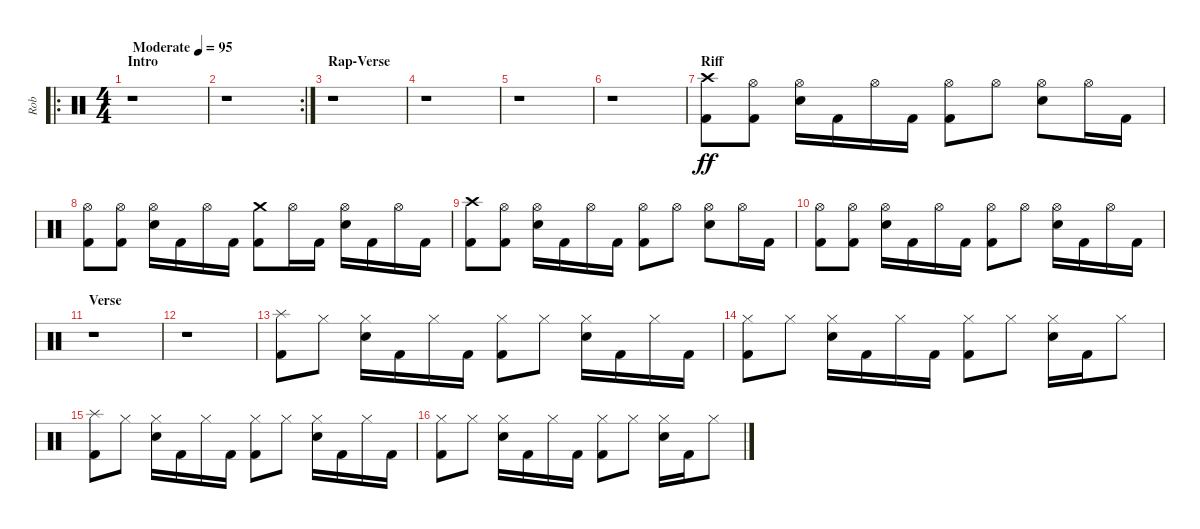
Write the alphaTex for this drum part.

\track ("Rob" "Rob") {instrument percussion}
\staff {score}
\articulation defaults
\ro
\ts (4 4)
\section ("" "Intro")
\tempo (95 "Moderate")
\clef neutral
\ks c
r.1{dy ff} |
\rc 2
r.1 |
\section ("" "Rap-Verse")
r.1 |
r.1 |
r.1 |
r.1 |
\section ("" "Riff")
("Crash high (hit)" "Kick (hit) 2").8 ("Hi-Hat (open)" "Kick (hit) 2").8 ("Hi-Hat (open)" "Snare (hit) 2").16 "Kick (hit) 2".16 "Hi-Hat (open)".16 "Kick (hit) 2".16 ("Hi-Hat (open)" "Kick (hit) 2").8 "Hi-Hat (open)".8 ("Hi-Hat (open)" "Snare (hit) 2").8 "Hi-Hat (open)".16 "Kick (hit) 2".16 |
("Hi-Hat (open)" "Kick (hit) 2").8 ("Hi-Hat (open)" "Kick (hit) 2").8 ("Hi-Hat (open)" "Snare (hit) 2").16 "Kick (hit) 2".16 "Hi-Hat (open)".16 "Kick (hit) 2".16 ("Crash medium (hit)" "Kick (hit) 2").8 "Hi-Hat (open)".16 "Kick (hit) 2".16 ("Hi-Hat (open)" "Snare (hit) 2").16 "Kick (hit) 2".16 "Hi-Hat (open)".16 "Kick (hit) 2".16 |
("Crash high (hit)" "Kick (hit) 2").8 ("Hi-Hat (open)" "Kick (hit) 2").8 ("Hi-Hat (open)" "Snare (hit) 2").16 "Kick (hit) 2".16 "Hi-Hat (open)".16 "Kick (hit) 2".16 ("Hi-Hat (open)" "Kick (hit) 2").8 "Hi-Hat (open)".8 ("Hi-Hat (open)" "Snare (hit) 2").8 "Hi-Hat (open)".16 "Kick (hit) 2".16 |
("Hi-Hat (open)" "Kick (hit) 2").8 ("Hi-Hat (open)" "Kick (hit) 2").8 ("Hi-Hat (open)" "Snare (hit) 2").16 "Kick (hit) 2".16 "Hi-Hat (open)".16 "Kick (hit) 2".16 ("Hi-Hat (open)" "Kick (hit) 2").8 "Hi-Hat (open)".8 ("Hi-Hat (open)" "Snare (hit) 2").16 "Kick (hit) 2".16 "Hi-Hat (open)".16 "Kick (hit) 2".16 |
\section ("" "Verse")
r.1 |
r.1 |
("Splash (hit)" "Kick (hit) 2").8 "Hi-Hat (closed)".8 ("Hi-Hat (closed)" "Snare (hit) 2").16 "Kick (hit) 2".16 "Hi-Hat (closed)".16 "Kick (hit) 2".16 ("Hi-Hat (closed)" "Kick (hit) 2").8 "Hi-Hat (closed)".8 ("Hi-Hat (closed)" "Snare (hit) 2").16 "Kick (hit) 2".16 "Hi-Hat (closed)".16 "Kick (hit) 2".16 |
("Hi-Hat (closed)" "Kick (hit) 2").8 "Hi-Hat (closed)".8 ("Hi-Hat (closed)" "Snare (hit) 2").16 "Kick (hit) 2".16 "Hi-Hat (closed)".16 "Kick (hit) 2".16 ("Hi-Hat (closed)" "Kick (hit) 2").8 "Hi-Hat (closed)".8 ("Hi-Hat (closed)" "Snare (hit) 2").16 "Kick (hit) 2".16 "Hi-Hat (closed)".8 |
("Splash (hit)" "Kick (hit) 2").8 "Hi-Hat (closed)".8 ("Hi-Hat (closed)" "Snare (hit) 2").16 "Kick (hit) 2".16 "Hi-Hat (closed)".16 "Kick (hit) 2".16 ("Hi-Hat (closed)" "Kick (hit) 2").8 "Hi-Hat (closed)".8 ("Hi-Hat (closed)" "Snare (hit) 2").16 "Kick (hit) 2".16 "Hi-Hat (closed)".16 "Kick (hit) 2".16 |
("Hi-Hat (closed)" "Kick (hit) 2").8 "Hi-Hat (closed)".8 ("Hi-Hat (closed)" "Snare (hit) 2").16 "Kick (hit) 2".16 "Hi-Hat (closed)".16 "Kick (hit) 2".16 ("Hi-Hat (closed)" "Kick (hit) 2").8 "Hi-Hat (closed)".8 ("Hi-Hat (closed)" "Snare (hit) 2").16 "Kick (hit) 2".16 "Hi-Hat (closed)".8
